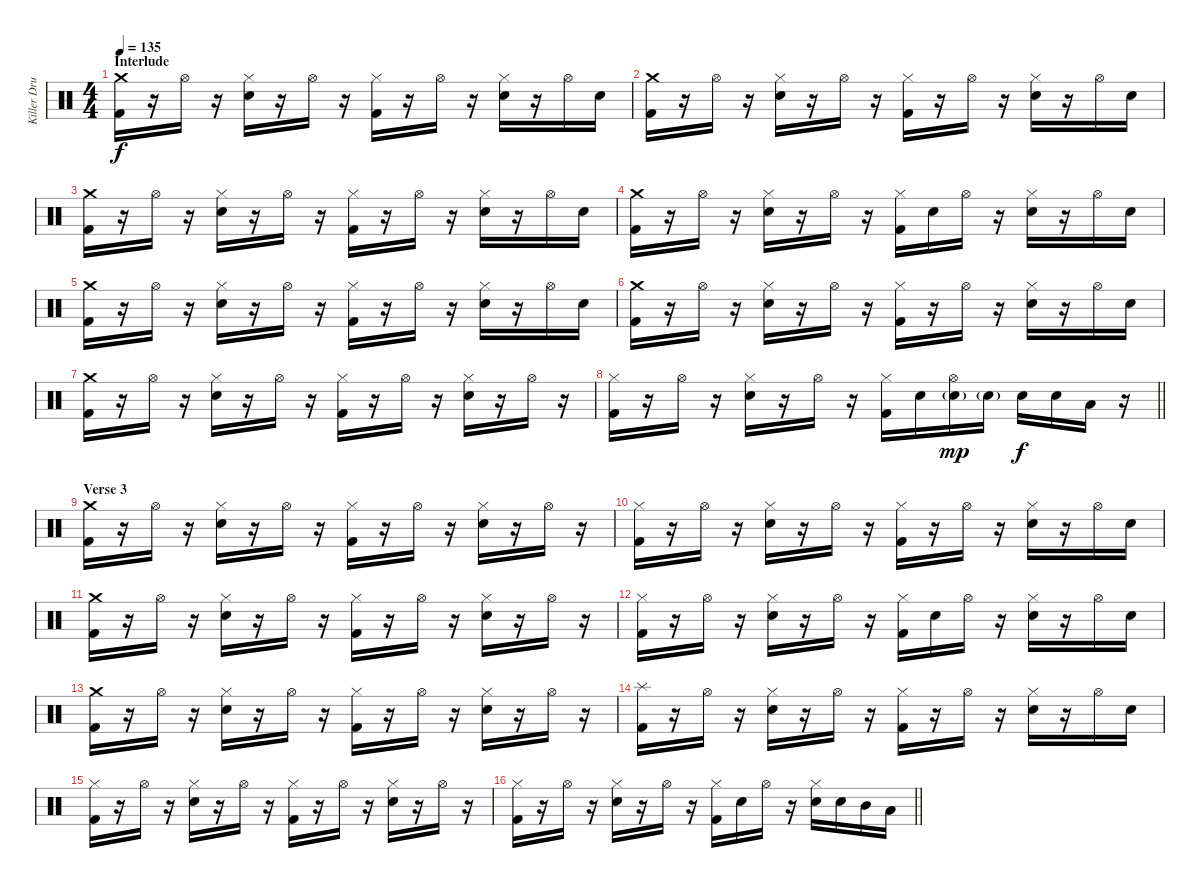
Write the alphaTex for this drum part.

\track ("Killer Drummer" "Killer Dru") {instrument percussion}
\staff {score}
\articulation defaults
\ts (4 4)
\section ("" "Interlude")
\tempo 135
\clef neutral
\ks c
("Crash medium (hit)" "Kick (hit) 2").16{dy f} r.16 "Hi-Hat (open)".16 r.16 ("Hi-Hat (closed)" "Electric Snare (hit)").16 r.16 "Hi-Hat (open)".16 r.16 ("Hi-Hat (closed)" "Kick (hit) 2").16 r.16 "Hi-Hat (open)".16 r.16 ("Hi-Hat (closed)" "Electric Snare (hit)").16 r.16 "Hi-Hat (open)".16 "Electric Snare (hit)".16 |
("Crash medium (hit)" "Kick (hit) 2").16 r.16 "Hi-Hat (open)".16 r.16 ("Hi-Hat (closed)" "Electric Snare (hit)").16 r.16 "Hi-Hat (open)".16 r.16 ("Hi-Hat (closed)" "Kick (hit) 2").16 r.16 "Hi-Hat (open)".16 r.16 ("Hi-Hat (closed)" "Electric Snare (hit)").16 r.16 "Hi-Hat (open)".16 "Electric Snare (hit)".16 |
("Crash medium (hit)" "Kick (hit) 2").16 r.16 "Hi-Hat (open)".16 r.16 ("Hi-Hat (closed)" "Electric Snare (hit)").16 r.16 "Hi-Hat (open)".16 r.16 ("Hi-Hat (closed)" "Kick (hit) 2").16 r.16 "Hi-Hat (open)".16 r.16 ("Hi-Hat (closed)" "Electric Snare (hit)").16 r.16 "Hi-Hat (open)".16 "Electric Snare (hit)".16 |
("Crash medium (hit)" "Kick (hit) 2").16 r.16 "Hi-Hat (open)".16 r.16 ("Hi-Hat (closed)" "Electric Snare (hit)").16 r.16 "Hi-Hat (open)".16 r.16 ("Hi-Hat (closed)" "Kick (hit) 2").16 "Electric Snare (hit)".16 "Hi-Hat (open)".16 r.16 ("Hi-Hat (closed)" "Electric Snare (hit)").16 r.16 "Hi-Hat (open)".16 "Electric Snare (hit)".16 |
("Crash medium (hit)" "Kick (hit) 2").16 r.16 "Hi-Hat (open)".16 r.16 ("Hi-Hat (closed)" "Electric Snare (hit)").16 r.16 "Hi-Hat (open)".16 r.16 ("Hi-Hat (closed)" "Kick (hit) 2").16 r.16 "Hi-Hat (open)".16 r.16 ("Hi-Hat (closed)" "Electric Snare (hit)").16 r.16 "Hi-Hat (open)".16 "Electric Snare (hit)".16 |
("Crash medium (hit)" "Kick (hit) 2").16 r.16 "Hi-Hat (open)".16 r.16 ("Hi-Hat (closed)" "Electric Snare (hit)").16 r.16 "Hi-Hat (open)".16 r.16 ("Hi-Hat (closed)" "Kick (hit) 2").16 r.16 "Hi-Hat (open)".16 r.16 ("Hi-Hat (closed)" "Electric Snare (hit)").16 r.16 "Hi-Hat (open)".16 "Electric Snare (hit)".16 |
("Crash medium (hit)" "Kick (hit) 2").16 r.16 "Hi-Hat (open)".16 r.16 ("Hi-Hat (closed)" "Electric Snare (hit)").16 r.16 "Hi-Hat (open)".16 r.16 ("Hi-Hat (closed)" "Kick (hit) 2").16 r.16 "Hi-Hat (open)".16 r.16 ("Hi-Hat (closed)" "Electric Snare (hit)").16 r.16 "Hi-Hat (open)".16 r.16 |
\barLineRight lightlight
("Hi-Hat (closed)" "Kick (hit) 2").16 r.16 "Hi-Hat (open)".16 r.16 ("Hi-Hat (closed)" "Electric Snare (hit)").16 r.16 "Hi-Hat (open)".16 r.16 ("Hi-Hat (closed)" "Kick (hit) 2").16 "Electric Snare (hit)".16 ("Hi-Hat (open)" "Electric Snare (hit)"{g}).16{dy mp} "Electric Snare (hit)"{g}.16 "Electric Snare (hit)".16{dy f} "Electric Snare (hit)".16 "Low Tom (hit)".16 r.16 |
\section ("" "Verse 3")
("Crash medium (hit)" "Kick (hit) 2").16 r.16 "Hi-Hat (open)".16 r.16 ("Hi-Hat (closed)" "Electric Snare (hit)").16 r.16 "Hi-Hat (open)".16 r.16 ("Hi-Hat (closed)" "Kick (hit) 2").16 r.16 "Hi-Hat (open)".16 r.16 ("Hi-Hat (closed)" "Electric Snare (hit)").16 r.16 "Hi-Hat (open)".16 r.16 |
("Hi-Hat (closed)" "Kick (hit) 2").16 r.16 "Hi-Hat (open)".16 r.16 ("Hi-Hat (closed)" "Electric Snare (hit)").16 r.16 "Hi-Hat (open)".16 r.16 ("Hi-Hat (closed)" "Kick (hit) 2").16 r.16 "Hi-Hat (open)".16 r.16 ("Hi-Hat (closed)" "Electric Snare (hit)").16 r.16 "Hi-Hat (open)".16 "Electric Snare (hit)".16 |
("Crash medium (hit)" "Kick (hit) 2").16 r.16 "Hi-Hat (open)".16 r.16 ("Hi-Hat (closed)" "Electric Snare (hit)").16 r.16 "Hi-Hat (open)".16 r.16 ("Hi-Hat (closed)" "Kick (hit) 2").16 r.16 "Hi-Hat (open)".16 r.16 ("Hi-Hat (closed)" "Electric Snare (hit)").16 r.16 "Hi-Hat (open)".16 r.16 |
("Hi-Hat (closed)" "Kick (hit) 2").16 r.16 "Hi-Hat (open)".16 r.16 ("Hi-Hat (closed)" "Electric Snare (hit)").16 r.16 "Hi-Hat (open)".16 r.16 ("Hi-Hat (closed)" "Kick (hit) 2").16 "Electric Snare (hit)".16 "Hi-Hat (open)".16 r.16 ("Hi-Hat (closed)" "Electric Snare (hit)").16 r.16 "Hi-Hat (open)".16 "Electric Snare (hit)".16 |
("Crash medium (hit)" "Kick (hit) 2").16 r.16 "Hi-Hat (open)".16 r.16 ("Hi-Hat (closed)" "Electric Snare (hit)").16 r.16 "Hi-Hat (open)".16 r.16 ("Hi-Hat (closed)" "Kick (hit) 2").16 r.16 "Hi-Hat (open)".16 r.16 ("Hi-Hat (closed)" "Electric Snare (hit)").16 r.16 "Hi-Hat (open)".16 r.16 |
("Splash (hit)" "Kick (hit) 2").16 r.16 "Hi-Hat (open)".16 r.16 ("Hi-Hat (closed)" "Electric Snare (hit)").16 r.16 "Hi-Hat (open)".16 r.16 ("Hi-Hat (closed)" "Kick (hit) 2").16 r.16 "Hi-Hat (open)".16 r.16 ("Hi-Hat (closed)" "Electric Snare (hit)").16 r.16 "Hi-Hat (open)".16 "Electric Snare (hit)".16 |
("Hi-Hat (closed)" "Kick (hit) 2").16 r.16 "Hi-Hat (open)".16 r.16 ("Hi-Hat (closed)" "Electric Snare (hit)").16 r.16 "Hi-Hat (open)".16 r.16 ("Hi-Hat (closed)" "Kick (hit) 2").16 r.16 "Hi-Hat (open)".16 r.16 ("Hi-Hat (closed)" "Electric Snare (hit)").16 r.16 "Hi-Hat (open)".16 r.16 |
\barLineRight lightlight
("Hi-Hat (closed)" "Kick (hit) 2").16 r.16 "Hi-Hat (open)".16 r.16 ("Hi-Hat (closed)" "Electric Snare (hit)").16 r.16 "Hi-Hat (open)".16 r.16 ("Hi-Hat (closed)" "Kick (hit) 2").16 "Electric Snare (hit)".16 "Hi-Hat (open)".16 r.16 ("Hi-Hat (closed)" "Electric Snare (hit)").16 "Electric Snare (hit)".16 "Mid Tom (hit)".16 "Low Tom (hit)".16
